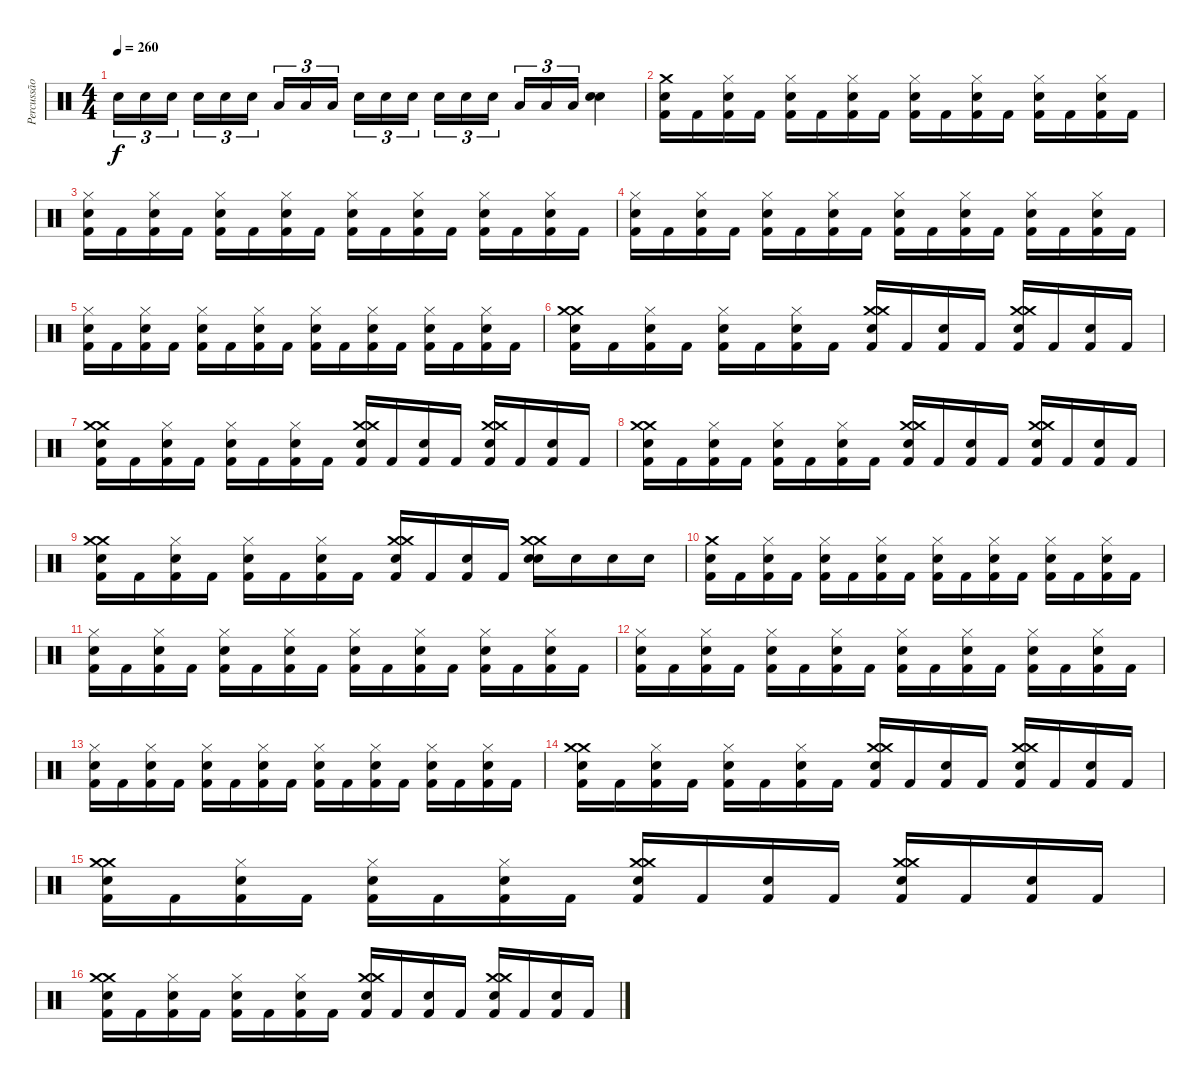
\track ("Percussão" "Percussão") {instrument percussion}
\staff {score}
\articulation defaults
\ts (4 4)
\tempo 260
\clef neutral
\ks c "Snare (hit) 2".16{tu (3 2) dy f} "Snare (hit) 2".16{tu (3 2)} "Snare (hit) 2".16{tu (3 2)} "Snare (hit) 2".16{tu (3 2)} "Snare (hit) 2".16{tu (3 2)} "Snare (hit) 2".16{tu (3 2)} "Low Tom (hit)".16{tu (3 2)} "Low Tom (hit)".16{tu (3 2)} "Low Tom (hit)".16{tu (3 2)} "Snare (hit) 2".16{tu (3 2)} "Snare (hit) 2".16{tu (3 2)} "Snare (hit) 2".16{tu (3 2)} "Snare (hit) 2".16{tu (3 2)} "Snare (hit) 2".16{tu (3 2)} "Snare (hit) 2".16{tu (3 2)} "Low Tom (hit)".16{tu (3 2)} "Low Tom (hit)".16{tu (3 2)} "Low Tom (hit)".16{tu (3 2)}
("Electric Snare (hit)" "Electric Snare (hit)").4 |
("Crash medium (hit)" "Snare (hit) 2" "Kick (hit) 2").16 "Kick (hit) 2".16 ("Hi-Hat (closed)" "Snare (hit) 2" "Kick (hit) 2").16 "Kick (hit) 2".16 ("Hi-Hat (closed)" "Snare (hit) 2" "Kick (hit) 2").16 "Kick (hit) 2".16 ("Hi-Hat (closed)" "Snare (hit) 2" "Kick (hit) 2").16 "Kick (hit) 2".16 ("Hi-Hat (closed)" "Snare (hit) 2" "Kick (hit) 2").16 "Kick (hit) 2".16 ("Hi-Hat (closed)" "Snare (hit) 2" "Kick (hit) 2").16 "Kick (hit) 2".16 ("Hi-Hat (closed)" "Snare (hit) 2" "Kick (hit) 2").16 "Kick (hit) 2".16 ("Hi-Hat (closed)" "Snare (hit) 2" "Kick (hit) 2").16 "Kick (hit) 2".16 |
("Hi-Hat (closed)" "Snare (hit) 2" "Kick (hit) 2").16 "Kick (hit) 2".16 ("Hi-Hat (closed)" "Snare (hit) 2" "Kick (hit) 2").16 "Kick (hit) 2".16 ("Hi-Hat (closed)" "Snare (hit) 2" "Kick (hit) 2").16 "Kick (hit) 2".16 ("Hi-Hat (closed)" "Snare (hit) 2" "Kick (hit) 2").16 "Kick (hit) 2".16 ("Hi-Hat (closed)" "Snare (hit) 2" "Kick (hit) 2").16 "Kick (hit) 2".16 ("Hi-Hat (closed)" "Snare (hit) 2" "Kick (hit) 2").16 "Kick (hit) 2".16 ("Hi-Hat (closed)" "Snare (hit) 2" "Kick (hit) 2").16 "Kick (hit) 2".16 ("Hi-Hat (closed)" "Snare (hit) 2" "Kick (hit) 2").16 "Kick (hit) 2".16 |
("Hi-Hat (closed)" "Snare (hit) 2" "Kick (hit) 2").16 "Kick (hit) 2".16 ("Hi-Hat (closed)" "Snare (hit) 2" "Kick (hit) 2").16 "Kick (hit) 2".16 ("Hi-Hat (closed)" "Snare (hit) 2" "Kick (hit) 2").16 "Kick (hit) 2".16 ("Hi-Hat (closed)" "Snare (hit) 2" "Kick (hit) 2").16 "Kick (hit) 2".16 ("Hi-Hat (closed)" "Snare (hit) 2" "Kick (hit) 2").16 "Kick (hit) 2".16 ("Hi-Hat (closed)" "Snare (hit) 2" "Kick (hit) 2").16 "Kick (hit) 2".16 ("Hi-Hat (closed)" "Snare (hit) 2" "Kick (hit) 2").16 "Kick (hit) 2".16 ("Hi-Hat (closed)" "Snare (hit) 2" "Kick (hit) 2").16 "Kick (hit) 2".16 |
("Hi-Hat (closed)" "Snare (hit) 2" "Kick (hit) 2").16 "Kick (hit) 2".16 ("Hi-Hat (closed)" "Snare (hit) 2" "Kick (hit) 2").16 "Kick (hit) 2".16 ("Hi-Hat (closed)" "Snare (hit) 2" "Kick (hit) 2").16 "Kick (hit) 2".16 ("Hi-Hat (closed)" "Snare (hit) 2" "Kick (hit) 2").16 "Kick (hit) 2".16 ("Hi-Hat (closed)" "Snare (hit) 2" "Kick (hit) 2").16 "Kick (hit) 2".16 ("Hi-Hat (closed)" "Snare (hit) 2" "Kick (hit) 2").16 "Kick (hit) 2".16 ("Hi-Hat (closed)" "Snare (hit) 2" "Kick (hit) 2").16 "Kick (hit) 2".16 ("Hi-Hat (closed)" "Snare (hit) 2" "Kick (hit) 2").16 "Kick (hit) 2".16 |
("Crash medium (hit)" "Crash medium (hit)" "Snare (hit) 2" "Kick (hit) 2").16 "Kick (hit) 2".16 ("Hi-Hat (closed)" "Snare (hit) 2" "Kick (hit) 2").16 "Kick (hit) 2".16 ("Hi-Hat (closed)" "Snare (hit) 2" "Kick (hit) 2").16 "Kick (hit) 2".16 ("Hi-Hat (closed)" "Snare (hit) 2" "Kick (hit) 2").16 "Kick (hit) 2".16 ("Crash medium (hit)" "Crash medium (hit)" "Snare (hit) 2" "Kick (hit) 2").16 "Kick (hit) 2".16 ("Snare (hit) 2" "Kick (hit) 2").16 "Kick (hit) 2".16 ("Crash medium (hit)" "Crash medium (hit)" "Snare (hit) 2" "Kick (hit) 2").16 "Kick (hit) 2".16 ("Snare (hit) 2" "Kick (hit) 2").16 "Kick (hit) 2".16 |
("Crash medium (hit)" "Crash medium (hit)" "Snare (hit) 2" "Kick (hit) 2").16 "Kick (hit) 2".16 ("Hi-Hat (closed)" "Snare (hit) 2" "Kick (hit) 2").16 "Kick (hit) 2".16 ("Hi-Hat (closed)" "Snare (hit) 2" "Kick (hit) 2").16 "Kick (hit) 2".16 ("Hi-Hat (closed)" "Snare (hit) 2" "Kick (hit) 2").16 "Kick (hit) 2".16 ("Crash medium (hit)" "Crash medium (hit)" "Snare (hit) 2" "Kick (hit) 2").16 "Kick (hit) 2".16 ("Snare (hit) 2" "Kick (hit) 2").16 "Kick (hit) 2".16 ("Crash medium (hit)" "Crash medium (hit)" "Snare (hit) 2" "Kick (hit) 2").16 "Kick (hit) 2".16 ("Snare (hit) 2" "Kick (hit) 2").16 "Kick (hit) 2".16 |
("Crash medium (hit)" "Crash medium (hit)" "Snare (hit) 2" "Kick (hit) 2").16 "Kick (hit) 2".16 ("Hi-Hat (closed)" "Snare (hit) 2" "Kick (hit) 2").16 "Kick (hit) 2".16 ("Hi-Hat (closed)" "Snare (hit) 2" "Kick (hit) 2").16 "Kick (hit) 2".16 ("Hi-Hat (closed)" "Snare (hit) 2" "Kick (hit) 2").16 "Kick (hit) 2".16 ("Crash medium (hit)" "Crash medium (hit)" "Snare (hit) 2" "Kick (hit) 2").16 "Kick (hit) 2".16 ("Snare (hit) 2" "Kick (hit) 2").16 "Kick (hit) 2".16 ("Crash medium (hit)" "Crash medium (hit)" "Snare (hit) 2" "Kick (hit) 2").16 "Kick (hit) 2".16 ("Snare (hit) 2" "Kick (hit) 2").16 "Kick (hit) 2".16 |
("Crash medium (hit)" "Crash medium (hit)" "Snare (hit) 2" "Kick (hit) 2").16 "Kick (hit) 2".16 ("Hi-Hat (closed)" "Snare (hit) 2" "Kick (hit) 2").16 "Kick (hit) 2".16 ("Hi-Hat (closed)" "Snare (hit) 2" "Kick (hit) 2").16 "Kick (hit) 2".16 ("Hi-Hat (closed)" "Snare (hit) 2" "Kick (hit) 2").16 "Kick (hit) 2".16 ("Crash medium (hit)" "Crash medium (hit)" "Snare (hit) 2" "Kick (hit) 2").16 "Kick (hit) 2".16 ("Snare (hit) 2" "Kick (hit) 2").16 "Kick (hit) 2".16 ("Crash medium (hit)" "Crash medium (hit)" "Snare (hit) 2" "Snare (hit) 2").16 "Snare (hit) 2".16 "Snare (hit) 2".16 "Snare (hit) 2".16 |
("Crash medium (hit)" "Snare (hit) 2" "Kick (hit) 2").16 "Kick (hit) 2".16 ("Hi-Hat (closed)" "Snare (hit) 2" "Kick (hit) 2").16 "Kick (hit) 2".16 ("Hi-Hat (closed)" "Snare (hit) 2" "Kick (hit) 2").16 "Kick (hit) 2".16 ("Hi-Hat (closed)" "Snare (hit) 2" "Kick (hit) 2").16 "Kick (hit) 2".16 ("Hi-Hat (closed)" "Snare (hit) 2" "Kick (hit) 2").16 "Kick (hit) 2".16 ("Hi-Hat (closed)" "Snare (hit) 2" "Kick (hit) 2").16 "Kick (hit) 2".16 ("Hi-Hat (closed)" "Snare (hit) 2" "Kick (hit) 2").16 "Kick (hit) 2".16 ("Hi-Hat (closed)" "Snare (hit) 2" "Kick (hit) 2").16 "Kick (hit) 2".16 |
("Hi-Hat (closed)" "Snare (hit) 2" "Kick (hit) 2").16 "Kick (hit) 2".16 ("Hi-Hat (closed)" "Snare (hit) 2" "Kick (hit) 2").16 "Kick (hit) 2".16 ("Hi-Hat (closed)" "Snare (hit) 2" "Kick (hit) 2").16 "Kick (hit) 2".16 ("Hi-Hat (closed)" "Snare (hit) 2" "Kick (hit) 2").16 "Kick (hit) 2".16 ("Hi-Hat (closed)" "Snare (hit) 2" "Kick (hit) 2").16 "Kick (hit) 2".16 ("Hi-Hat (closed)" "Snare (hit) 2" "Kick (hit) 2").16 "Kick (hit) 2".16 ("Hi-Hat (closed)" "Snare (hit) 2" "Kick (hit) 2").16 "Kick (hit) 2".16 ("Hi-Hat (closed)" "Snare (hit) 2" "Kick (hit) 2").16 "Kick (hit) 2".16 |
("Hi-Hat (closed)" "Snare (hit) 2" "Kick (hit) 2").16 "Kick (hit) 2".16 ("Hi-Hat (closed)" "Snare (hit) 2" "Kick (hit) 2").16 "Kick (hit) 2".16 ("Hi-Hat (closed)" "Snare (hit) 2" "Kick (hit) 2").16 "Kick (hit) 2".16 ("Hi-Hat (closed)" "Snare (hit) 2" "Kick (hit) 2").16 "Kick (hit) 2".16 ("Hi-Hat (closed)" "Snare (hit) 2" "Kick (hit) 2").16 "Kick (hit) 2".16 ("Hi-Hat (closed)" "Snare (hit) 2" "Kick (hit) 2").16 "Kick (hit) 2".16 ("Hi-Hat (closed)" "Snare (hit) 2" "Kick (hit) 2").16 "Kick (hit) 2".16 ("Hi-Hat (closed)" "Snare (hit) 2" "Kick (hit) 2").16 "Kick (hit) 2".16 |
("Hi-Hat (closed)" "Snare (hit) 2" "Kick (hit) 2").16 "Kick (hit) 2".16 ("Hi-Hat (closed)" "Snare (hit) 2" "Kick (hit) 2").16 "Kick (hit) 2".16 ("Hi-Hat (closed)" "Snare (hit) 2" "Kick (hit) 2").16 "Kick (hit) 2".16 ("Hi-Hat (closed)" "Snare (hit) 2" "Kick (hit) 2").16 "Kick (hit) 2".16 ("Hi-Hat (closed)" "Snare (hit) 2" "Kick (hit) 2").16 "Kick (hit) 2".16 ("Hi-Hat (closed)" "Snare (hit) 2" "Kick (hit) 2").16 "Kick (hit) 2".16 ("Hi-Hat (closed)" "Snare (hit) 2" "Kick (hit) 2").16 "Kick (hit) 2".16 ("Hi-Hat (closed)" "Snare (hit) 2" "Kick (hit) 2").16 "Kick (hit) 2".16 |
("Crash medium (hit)" "Crash medium (hit)" "Snare (hit) 2" "Kick (hit) 2").16 "Kick (hit) 2".16 ("Hi-Hat (closed)" "Snare (hit) 2" "Kick (hit) 2").16 "Kick (hit) 2".16 ("Hi-Hat (closed)" "Snare (hit) 2" "Kick (hit) 2").16 "Kick (hit) 2".16 ("Hi-Hat (closed)" "Snare (hit) 2" "Kick (hit) 2").16 "Kick (hit) 2".16 ("Crash medium (hit)" "Crash medium (hit)" "Snare (hit) 2" "Kick (hit) 2").16 "Kick (hit) 2".16 ("Snare (hit) 2" "Kick (hit) 2").16 "Kick (hit) 2".16 ("Crash medium (hit)" "Crash medium (hit)" "Snare (hit) 2" "Kick (hit) 2").16 "Kick (hit) 2".16 ("Snare (hit) 2" "Kick (hit) 2").16 "Kick (hit) 2".16 |
("Crash medium (hit)" "Crash medium (hit)" "Snare (hit) 2" "Kick (hit) 2").16 "Kick (hit) 2".16 ("Hi-Hat (closed)" "Snare (hit) 2" "Kick (hit) 2").16 "Kick (hit) 2".16 ("Hi-Hat (closed)" "Snare (hit) 2" "Kick (hit) 2").16 "Kick (hit) 2".16 ("Hi-Hat (closed)" "Snare (hit) 2" "Kick (hit) 2").16 "Kick (hit) 2".16 ("Crash medium (hit)" "Crash medium (hit)" "Snare (hit) 2" "Kick (hit) 2").16 "Kick (hit) 2".16 ("Snare (hit) 2" "Kick (hit) 2").16 "Kick (hit) 2".16 ("Crash medium (hit)" "Crash medium (hit)" "Snare (hit) 2" "Kick (hit) 2").16 "Kick (hit) 2".16 ("Snare (hit) 2" "Kick (hit) 2").16 "Kick (hit) 2".16 |
("Crash medium (hit)" "Crash medium (hit)" "Snare (hit) 2" "Kick (hit) 2").16 "Kick (hit) 2".16 ("Hi-Hat (closed)" "Snare (hit) 2" "Kick (hit) 2").16 "Kick (hit) 2".16 ("Hi-Hat (closed)" "Snare (hit) 2" "Kick (hit) 2").16 "Kick (hit) 2".16 ("Hi-Hat (closed)" "Snare (hit) 2" "Kick (hit) 2").16 "Kick (hit) 2".16 ("Crash medium (hit)" "Crash medium (hit)" "Snare (hit) 2" "Kick (hit) 2").16 "Kick (hit) 2".16 ("Snare (hit) 2" "Kick (hit) 2").16 "Kick (hit) 2".16 ("Crash medium (hit)" "Crash medium (hit)" "Snare (hit) 2" "Kick (hit) 2").16 "Kick (hit) 2".16 ("Snare (hit) 2" "Kick (hit) 2").16 "Kick (hit) 2".16
